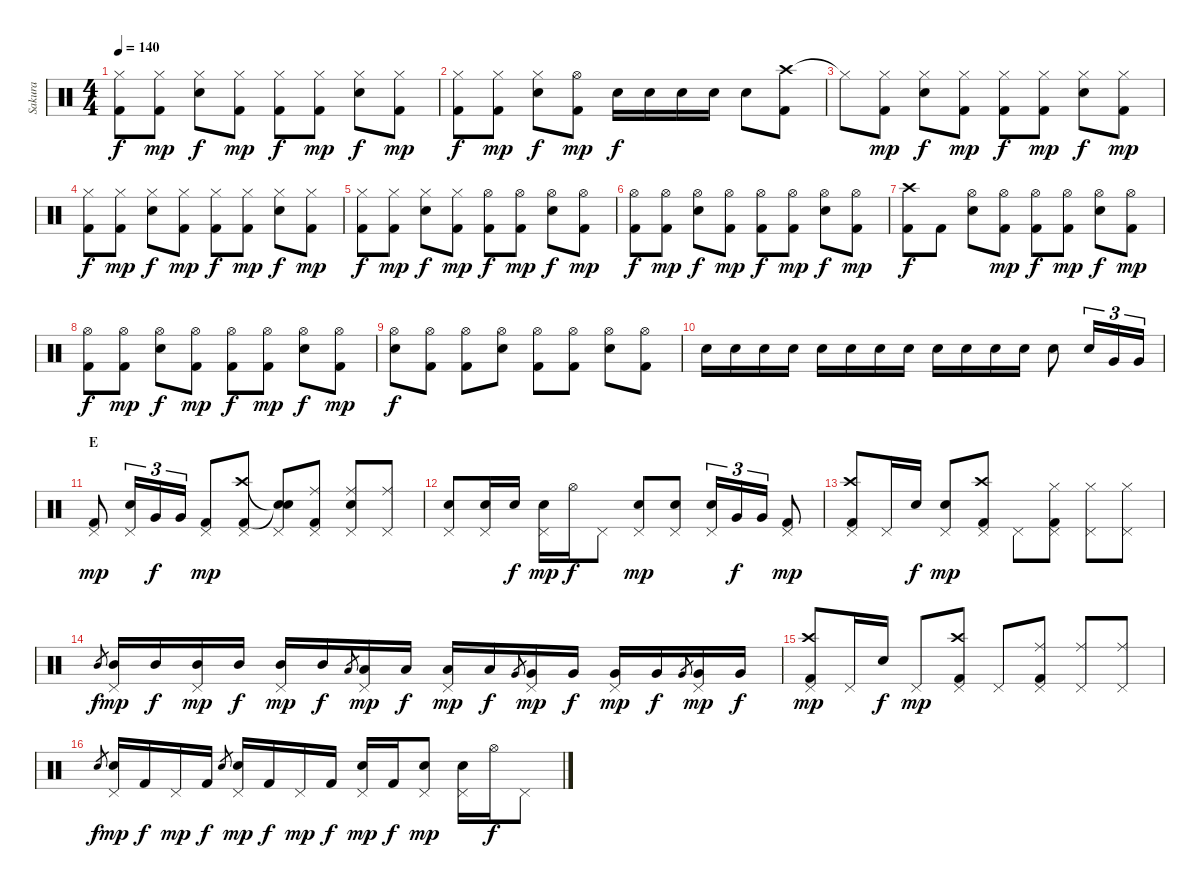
\track ("Sakura" "Sakura") {instrument percussion}
\staff {score}
\articulation defaults
\ts (4 4)
\tempo 140
\clef neutral
\ks c
("Hi-Hat (closed)" "Kick (hit) 2").8{dy f} ("Hi-Hat (closed)" "Kick (hit) 2").8{dy mp} ("Hi-Hat (closed)" "Electric Snare (hit)").8{dy f} ("Hi-Hat (closed)" "Kick (hit) 2").8{dy mp} ("Hi-Hat (closed)" "Kick (hit) 2").8{dy f} ("Hi-Hat (closed)" "Kick (hit) 2").8{dy mp} ("Hi-Hat (closed)" "Electric Snare (hit)").8{dy f} ("Hi-Hat (closed)" "Kick (hit) 2").8{dy mp} |
("Hi-Hat (closed)" "Kick (hit) 2").8{dy f} ("Hi-Hat (closed)" "Kick (hit) 2").8{dy mp} ("Hi-Hat (closed)" "Electric Snare (hit)").8{dy f} ("Hi-Hat (open)" "Kick (hit) 2").8{dy mp} "Electric Snare (hit)".16{dy f} "Electric Snare (hit)".16 "Electric Snare (hit)".16 "Electric Snare (hit)".16 "Electric Snare (hit)".8 ("Crash high (hit)" "Kick (hit) 2").8 |
"Hi-Hat (closed)"{t}.8 ("Hi-Hat (closed)" "Kick (hit) 2").8{dy mp} ("Hi-Hat (closed)" "Electric Snare (hit)").8{dy f} ("Hi-Hat (closed)" "Kick (hit) 2").8{dy mp} ("Hi-Hat (closed)" "Kick (hit) 2").8{dy f} ("Hi-Hat (closed)" "Kick (hit) 2").8{dy mp} ("Hi-Hat (closed)" "Electric Snare (hit)").8{dy f} ("Hi-Hat (closed)" "Kick (hit) 2").8{dy mp} |
("Hi-Hat (closed)" "Kick (hit) 2").8{dy f} ("Hi-Hat (closed)" "Kick (hit) 2").8{dy mp} ("Hi-Hat (closed)" "Electric Snare (hit)").8{dy f} ("Hi-Hat (closed)" "Kick (hit) 2").8{dy mp} ("Hi-Hat (closed)" "Kick (hit) 2").8{dy f} ("Hi-Hat (closed)" "Kick (hit) 2").8{dy mp} ("Hi-Hat (closed)" "Electric Snare (hit)").8{dy f} ("Hi-Hat (closed)" "Kick (hit) 2").8{dy mp} |
("Hi-Hat (closed)" "Kick (hit) 2").8{dy f} ("Hi-Hat (closed)" "Kick (hit) 2").8{dy mp} ("Hi-Hat (closed)" "Electric Snare (hit)").8{dy f} ("Hi-Hat (closed)" "Kick (hit) 2").8{dy mp} ("Hi-Hat (open)" "Kick (hit) 2").8{dy f} ("Hi-Hat (open)" "Kick (hit) 2").8{dy mp} ("Hi-Hat (open)" "Electric Snare (hit)").8{dy f} ("Hi-Hat (open)" "Kick (hit) 2").8{dy mp} |
("Hi-Hat (open)" "Kick (hit) 2").8{dy f} ("Hi-Hat (open)" "Kick (hit) 2").8{dy mp} ("Hi-Hat (open)" "Electric Snare (hit)").8{dy f} ("Hi-Hat (open)" "Kick (hit) 2").8{dy mp} ("Hi-Hat (open)" "Kick (hit) 2").8{dy f} ("Hi-Hat (open)" "Kick (hit) 2").8{dy mp} ("Hi-Hat (open)" "Electric Snare (hit)").8{dy f} ("Hi-Hat (open)" "Kick (hit) 2").8{dy mp} |
("Crash high (hit)" "Kick (hit) 2").8{dy f} "Kick (hit) 2".8 ("Hi-Hat (open)" "Electric Snare (hit)").8 ("Hi-Hat (open)" "Kick (hit) 2").8{dy mp} ("Hi-Hat (open)" "Kick (hit) 2").8{dy f} ("Hi-Hat (open)" "Kick (hit) 2").8{dy mp} ("Hi-Hat (open)" "Electric Snare (hit)").8{dy f} ("Hi-Hat (open)" "Kick (hit) 2").8{dy mp} |
("Hi-Hat (open)" "Kick (hit) 2").8{dy f} ("Hi-Hat (open)" "Kick (hit) 2").8{dy mp} ("Hi-Hat (open)" "Electric Snare (hit)").8{dy f} ("Hi-Hat (open)" "Kick (hit) 2").8{dy mp} ("Hi-Hat (open)" "Kick (hit) 2").8{dy f} ("Hi-Hat (open)" "Kick (hit) 2").8{dy mp} ("Hi-Hat (open)" "Electric Snare (hit)").8{dy f} ("Hi-Hat (open)" "Kick (hit) 2").8{dy mp} |
("Hi-Hat (open)" "Electric Snare (hit)").8{dy f} ("Hi-Hat (open)" "Kick (hit) 2").8 ("Hi-Hat (open)" "Kick (hit) 2").8 ("Hi-Hat (open)" "Electric Snare (hit)").8 ("Hi-Hat (open)" "Kick (hit) 2").8 ("Hi-Hat (open)" "Kick (hit) 2").8 ("Hi-Hat (open)" "Electric Snare (hit)").8 ("Hi-Hat (open)" "Kick (hit) 2").8 |
"Electric Snare (hit)".16 "Electric Snare (hit)".16 "Electric Snare (hit)".16 "Electric Snare (hit)".16 "Electric Snare (hit)".16 "Electric Snare (hit)".16 "Electric Snare (hit)".16 "Electric Snare (hit)".16 "Electric Snare (hit)".16 "Electric Snare (hit)".16 "Electric Snare (hit)".16 "Electric Snare (hit)".16 "Electric Snare (hit)".8 "Electric Snare (hit)".16{tu (3 2)} "Very Low Tom (hit)".16{tu (3 2)} "Very Low Tom (hit)".16{tu (3 2)} |
\section ("" "E")
("Pedal Hi-Hat (hit)" "Kick (hit) 2").8{dy mp} ("Pedal Hi-Hat (hit)" "Electric Snare (hit)").16{tu (3 2)} "Very Low Tom (hit)".16{tu (3 2) dy f} "Very Low Tom (hit)".16{tu (3 2)} ("Pedal Hi-Hat (hit)" "Kick (hit) 2").8{dy mp} ("Crash high (hit)" "Pedal Hi-Hat (hit)" "Kick (hit) 2").8 ("Snare (hit)"{t} "Pedal Hi-Hat (hit)" "Snare (hit)"{t}).8 ("Ride (middle)" "Pedal Hi-Hat (hit)" "Kick (hit) 2").8 ("Ride (middle)" "Pedal Hi-Hat (hit)" "Electric Snare (hit)").8 ("Ride (middle)" "Pedal Hi-Hat (hit)").8 |
("Pedal Hi-Hat (hit)" "Electric Snare (hit)").8 ("Pedal Hi-Hat (hit)" "Electric Snare (hit)").16 "Electric Snare (hit)".16{dy f} ("Pedal Hi-Hat (hit)" "Electric Snare (hit)").16{dy mp} "Hi-Hat (open)".16{dy f} "Pedal Hi-Hat (hit)".8 ("Pedal Hi-Hat (hit)" "Electric Snare (hit)").8{dy mp} ("Pedal Hi-Hat (hit)" "Electric Snare (hit)").8 ("Pedal Hi-Hat (hit)" "Electric Snare (hit)").16{tu (3 2)} "Very Low Tom (hit)".16{tu (3 2) dy f} "Very Low Tom (hit)".16{tu (3 2)} ("Pedal Hi-Hat (hit)" "Kick (hit) 2").8{dy mp} |
("Crash high (hit)" "Pedal Hi-Hat (hit)" "Kick (hit) 2").8 "Pedal Hi-Hat (hit)".16 "Electric Snare (hit)".16{dy f} ("Pedal Hi-Hat (hit)" "Electric Snare (hit)").8{dy mp} ("Crash high (hit)" "Pedal Hi-Hat (hit)" "Kick (hit) 2").8 "Pedal Hi-Hat (hit)".8 ("Hi-Hat (closed)" "Pedal Hi-Hat (hit)" "Kick (hit) 2").8 ("Hi-Hat (closed)" "Pedal Hi-Hat (hit)").8 ("Hi-Hat (closed)" "Pedal Hi-Hat (hit)").8 |
"Mid Tom (hit)".8{gr dy f} ("Pedal Hi-Hat (hit)" "Mid Tom (hit)").16{dy mp} "Mid Tom (hit)".16{dy f} ("Pedal Hi-Hat (hit)" "Mid Tom (hit)").16{dy mp} "Mid Tom (hit)".16{dy f} ("Pedal Hi-Hat (hit)" "Mid Tom (hit)").16{dy mp} "Mid Tom (hit)".16{dy f} "Low Tom (hit)".8{gr} ("Pedal Hi-Hat (hit)" "Low Tom (hit)").16{dy mp} "Low Tom (hit)".16{dy f} ("Pedal Hi-Hat (hit)" "Low Tom (hit)").16{dy mp} "Low Tom (hit)".16{dy f} "Very Low Tom (hit)".8{gr} ("Pedal Hi-Hat (hit)" "Very Low Tom (hit)").16{dy mp} "Very Low Tom (hit)".16{dy f} ("Pedal Hi-Hat (hit)" "Very Low Tom (hit)").16{dy mp} "Very Low Tom (hit)".16{dy f} "Very Low Tom (hit)".8{gr} ("Pedal Hi-Hat (hit)" "Very Low Tom (hit)").16{dy mp} "Very Low Tom (hit)".16{dy f} |
("Crash high (hit)" "Pedal Hi-Hat (hit)" "Kick (hit) 2").8{dy mp} "Pedal Hi-Hat (hit)".16 "Electric Snare (hit)".16{dy f} "Pedal Hi-Hat (hit)".8{dy mp} ("Crash high (hit)" "Pedal Hi-Hat (hit)" "Kick (hit) 2").8 "Pedal Hi-Hat (hit)".8 ("Ride (middle)" "Pedal Hi-Hat (hit)" "Kick (hit) 2").8 ("Ride (middle)" "Pedal Hi-Hat (hit)").8 ("Ride (middle)" "Pedal Hi-Hat (hit)").8 |
"Electric Snare (hit)".8{gr dy f} ("Pedal Hi-Hat (hit)" "Electric Snare (hit)").16{dy mp} "Kick (hit) 2".16{dy f} "Pedal Hi-Hat (hit)".16{dy mp} "Kick (hit) 2".16{dy f} "Electric Snare (hit)".8{gr} ("Pedal Hi-Hat (hit)" "Electric Snare (hit)").16{dy mp} "Kick (hit) 2".16{dy f} "Pedal Hi-Hat (hit)".16{dy mp} "Kick (hit) 2".16{dy f} ("Pedal Hi-Hat (hit)" "Electric Snare (hit)").16{dy mp} "Kick (hit) 2".16{dy f} ("Pedal Hi-Hat (hit)" "Electric Snare (hit)").8{dy mp} ("Pedal Hi-Hat (hit)" "Electric Snare (hit)").16 "Hi-Hat (open)".16{dy f} "Pedal Hi-Hat (hit)".8
